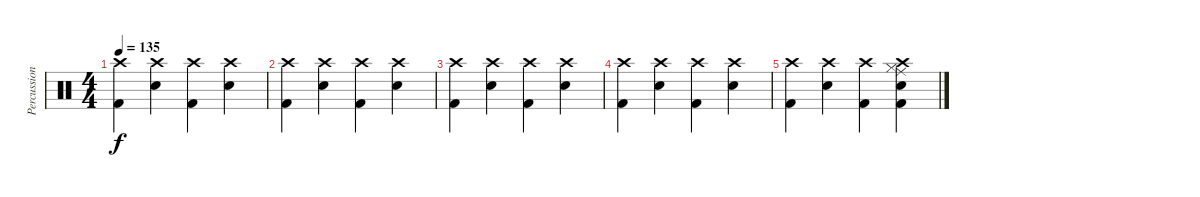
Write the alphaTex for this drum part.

\track ("Percussion" "Percussion") {instrument percussion}
\staff {score}
\articulation defaults
\ts (4 4)
\tempo 135
\clef neutral
\ks c
("Kick (hit) 2" "Crash high (hit)").4{dy f} ("Electric Snare (hit)" "Crash high (hit)").4 ("Kick (hit) 2" "Crash high (hit)").4 ("Electric Snare (hit)" "Crash high (hit)").4 |
("Kick (hit) 2" "Crash high (hit)").4 ("Electric Snare (hit)" "Crash high (hit)").4 ("Kick (hit) 2" "Crash high (hit)").4 ("Electric Snare (hit)" "Crash high (hit)").4 |
("Kick (hit) 2" "Crash high (hit)").4 ("Electric Snare (hit)" "Crash high (hit)").4 ("Kick (hit) 2" "Crash high (hit)").4 ("Electric Snare (hit)" "Crash high (hit)").4 |
("Kick (hit) 2" "Crash high (hit)").4 ("Electric Snare (hit)" "Crash high (hit)").4 ("Kick (hit) 2" "Crash high (hit)").4 ("Electric Snare (hit)" "Crash high (hit)").4 |
("Kick (hit) 2" "Crash high (hit)").4 ("Electric Snare (hit)" "Crash high (hit)").4 ("Kick (hit) 2" "Crash high (hit)").4 ("Ride (middle)" "Electric Snare (hit)" "Crash high (hit)" "Hi-Hat (closed)" "Kick (hit) 2").4
